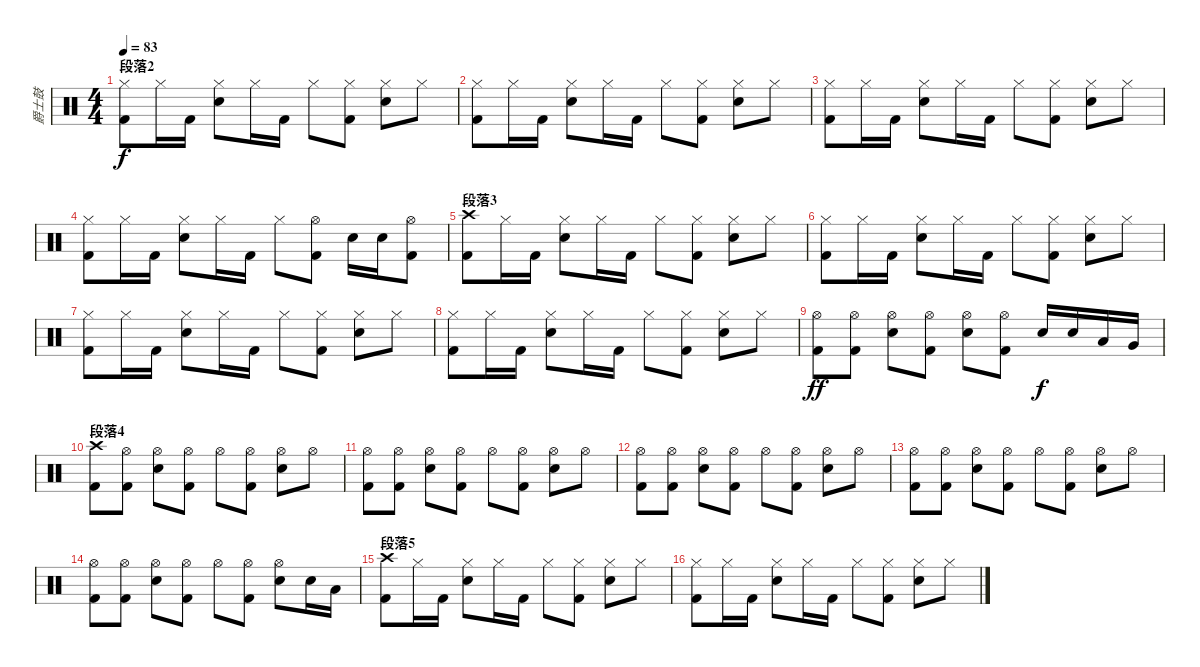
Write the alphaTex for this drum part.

\track ("爵士鼓" "爵士鼓") {instrument percussion}
\staff {score}
\articulation defaults
\ts (4 4)
\section ("" "段落2")
\tempo 83
\clef neutral
\ks c
("Hi-Hat (closed)" "Kick (hit) 2").8{dy f} "Hi-Hat (closed)".16 "Kick (hit) 2".16 ("Hi-Hat (closed)" "Electric Snare (hit)").8 "Hi-Hat (closed)".16 "Kick (hit) 2".16 "Hi-Hat (closed)".8 ("Hi-Hat (closed)" "Kick (hit) 2").8 ("Hi-Hat (closed)" "Electric Snare (hit)").8 "Hi-Hat (closed)".8 |
("Hi-Hat (closed)" "Kick (hit) 2").8 "Hi-Hat (closed)".16 "Kick (hit) 2".16 ("Hi-Hat (closed)" "Electric Snare (hit)").8 "Hi-Hat (closed)".16 "Kick (hit) 2".16 "Hi-Hat (closed)".8 ("Hi-Hat (closed)" "Kick (hit) 2").8 ("Hi-Hat (closed)" "Electric Snare (hit)").8 "Hi-Hat (closed)".8 |
("Hi-Hat (closed)" "Kick (hit) 2").8 "Hi-Hat (closed)".16 "Kick (hit) 2".16 ("Hi-Hat (closed)" "Electric Snare (hit)").8 "Hi-Hat (closed)".16 "Kick (hit) 2".16 "Hi-Hat (closed)".8 ("Hi-Hat (closed)" "Kick (hit) 2").8 ("Hi-Hat (closed)" "Electric Snare (hit)").8 "Hi-Hat (closed)".8 |
("Hi-Hat (closed)" "Kick (hit) 2").8 "Hi-Hat (closed)".16 "Kick (hit) 2".16 ("Hi-Hat (closed)" "Electric Snare (hit)").8 "Hi-Hat (closed)".16 "Kick (hit) 2".16 "Hi-Hat (closed)".8 ("Hi-Hat (open)" "Kick (hit) 2").8 "Electric Snare (hit)".16 "Electric Snare (hit)".16 ("Hi-Hat (open)" "Kick (hit) 2").8 |
\section ("" "段落3")
("Crash high (hit)" "Kick (hit) 2").8 "Hi-Hat (closed)".16 "Kick (hit) 2".16 ("Hi-Hat (closed)" "Electric Snare (hit)").8 "Hi-Hat (closed)".16 "Kick (hit) 2".16 "Hi-Hat (closed)".8 ("Hi-Hat (closed)" "Kick (hit) 2").8 ("Hi-Hat (closed)" "Electric Snare (hit)").8 "Hi-Hat (closed)".8 |
("Hi-Hat (closed)" "Kick (hit) 2").8 "Hi-Hat (closed)".16 "Kick (hit) 2".16 ("Hi-Hat (closed)" "Electric Snare (hit)").8 "Hi-Hat (closed)".16 "Kick (hit) 2".16 "Hi-Hat (closed)".8 ("Hi-Hat (closed)" "Kick (hit) 2").8 ("Hi-Hat (closed)" "Electric Snare (hit)").8 "Hi-Hat (closed)".8 |
("Hi-Hat (closed)" "Kick (hit) 2").8 "Hi-Hat (closed)".16 "Kick (hit) 2".16 ("Hi-Hat (closed)" "Electric Snare (hit)").8 "Hi-Hat (closed)".16 "Kick (hit) 2".16 "Hi-Hat (closed)".8 ("Hi-Hat (closed)" "Kick (hit) 2").8 ("Hi-Hat (closed)" "Electric Snare (hit)").8 "Hi-Hat (closed)".8 |
("Hi-Hat (closed)" "Kick (hit) 2").8 "Hi-Hat (closed)".16 "Kick (hit) 2".16 ("Hi-Hat (closed)" "Electric Snare (hit)").8 "Hi-Hat (closed)".16 "Kick (hit) 2".16 "Hi-Hat (closed)".8 ("Hi-Hat (closed)" "Kick (hit) 2").8 ("Hi-Hat (closed)" "Electric Snare (hit)").8 "Hi-Hat (closed)".8 |
("Hi-Hat (open)" "Kick (hit) 2").8{dy ff} ("Hi-Hat (open)" "Kick (hit) 2").8 ("Hi-Hat (open)" "Electric Snare (hit)").8 ("Hi-Hat (open)" "Kick (hit) 2").8 ("Hi-Hat (open)" "Electric Snare (hit)").8 ("Hi-Hat (open)" "Kick (hit) 2").8 "Electric Snare (hit)".16{dy f} "Electric Snare (hit)".16 "Low Tom (hit)".16 "Very Low Tom (hit)".16 |
\section ("" "段落4")
("Crash high (hit)" "Kick (hit) 2").8 ("Hi-Hat (open)" "Kick (hit) 2").8 ("Hi-Hat (open)" "Electric Snare (hit)").8 ("Hi-Hat (open)" "Kick (hit) 2").8 "Hi-Hat (open)".8 ("Hi-Hat (open)" "Kick (hit) 2").8 ("Hi-Hat (open)" "Electric Snare (hit)").8 "Hi-Hat (open)".8 |
("Hi-Hat (open)" "Kick (hit) 2").8 ("Hi-Hat (open)" "Kick (hit) 2").8 ("Hi-Hat (open)" "Electric Snare (hit)").8 ("Hi-Hat (open)" "Kick (hit) 2").8 "Hi-Hat (open)".8 ("Hi-Hat (open)" "Kick (hit) 2").8 ("Hi-Hat (open)" "Electric Snare (hit)").8 "Hi-Hat (open)".8 |
("Hi-Hat (open)" "Kick (hit) 2").8 ("Hi-Hat (open)" "Kick (hit) 2").8 ("Hi-Hat (open)" "Electric Snare (hit)").8 ("Hi-Hat (open)" "Kick (hit) 2").8 "Hi-Hat (open)".8 ("Hi-Hat (open)" "Kick (hit) 2").8 ("Hi-Hat (open)" "Electric Snare (hit)").8 "Hi-Hat (open)".8 |
("Hi-Hat (open)" "Kick (hit) 2").8 ("Hi-Hat (open)" "Kick (hit) 2").8 ("Hi-Hat (open)" "Electric Snare (hit)").8 ("Hi-Hat (open)" "Kick (hit) 2").8 "Hi-Hat (open)".8 ("Hi-Hat (open)" "Kick (hit) 2").8 ("Hi-Hat (open)" "Electric Snare (hit)").8 "Hi-Hat (open)".8 |
("Hi-Hat (open)" "Kick (hit) 2").8 ("Hi-Hat (open)" "Kick (hit) 2").8 ("Hi-Hat (open)" "Electric Snare (hit)").8 ("Hi-Hat (open)" "Kick (hit) 2").8 "Hi-Hat (open)".8 ("Hi-Hat (open)" "Kick (hit) 2").8 ("Hi-Hat (open)" "Electric Snare (hit)").8 "Electric Snare (hit)".16 "Low Tom (hit)".16 |
\section ("" "段落5")
("Crash high (hit)" "Kick (hit) 2").8 "Hi-Hat (closed)".16 "Kick (hit) 2".16 ("Hi-Hat (closed)" "Electric Snare (hit)").8 "Hi-Hat (closed)".16 "Kick (hit) 2".16 "Hi-Hat (closed)".8 ("Hi-Hat (closed)" "Kick (hit) 2").8 ("Hi-Hat (closed)" "Electric Snare (hit)").8 "Hi-Hat (closed)".8 |
("Hi-Hat (closed)" "Kick (hit) 2").8 "Hi-Hat (closed)".16 "Kick (hit) 2".16 ("Hi-Hat (closed)" "Electric Snare (hit)").8 "Hi-Hat (closed)".16 "Kick (hit) 2".16 "Hi-Hat (closed)".8 ("Hi-Hat (closed)" "Kick (hit) 2").8 ("Hi-Hat (closed)" "Electric Snare (hit)").8 "Hi-Hat (closed)".8
